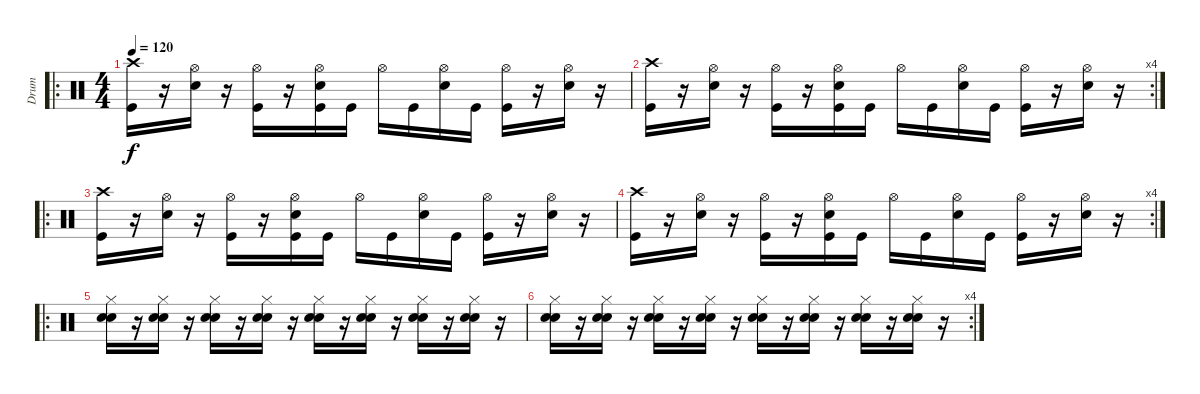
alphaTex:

\track ("Drum" "Drum") {instrument percussion}
\staff {score}
\articulation defaults
\ro
\ts (4 4)
\tempo 120
\clef neutral
\ks c
("Crash high (hit)" "Kick (hit)").16{dy f} r.16 ("Hi-Hat (open)" "Snare (hit) 2").16 r.16 ("Hi-Hat (open)" "Kick (hit)").16 r.16 ("Hi-Hat (open)" "Snare (hit) 2" "Kick (hit)").16 "Kick (hit)".16 "Hi-Hat (open)".16 "Kick (hit)".16 ("Hi-Hat (open)" "Snare (hit) 2").16 "Kick (hit)".16 ("Hi-Hat (open)" "Kick (hit)").16 r.16 ("Hi-Hat (open)" "Snare (hit) 2").16 r.16 |
\rc 4
("Crash high (hit)" "Kick (hit)").16 r.16 ("Hi-Hat (open)" "Snare (hit) 2").16 r.16 ("Hi-Hat (open)" "Kick (hit)").16 r.16 ("Hi-Hat (open)" "Snare (hit) 2" "Kick (hit)").16 "Kick (hit)".16 "Hi-Hat (open)".16 "Kick (hit)".16 ("Hi-Hat (open)" "Snare (hit) 2").16 "Kick (hit)".16 ("Hi-Hat (open)" "Kick (hit)").16 r.16 ("Hi-Hat (open)" "Snare (hit) 2").16 r.16 |
\ro
("Crash high (hit)" "Kick (hit)").16 r.16 ("Hi-Hat (open)" "Snare (hit) 2").16 r.16 ("Hi-Hat (open)" "Kick (hit)").16 r.16 ("Hi-Hat (open)" "Snare (hit) 2" "Kick (hit)").16 "Kick (hit)".16 "Hi-Hat (open)".16 "Kick (hit)".16 ("Hi-Hat (open)" "Snare (hit) 2").16 "Kick (hit)".16 ("Hi-Hat (open)" "Kick (hit)").16 r.16 ("Hi-Hat (open)" "Snare (hit) 2").16 r.16 |
\rc 4
("Crash high (hit)" "Kick (hit)").16 r.16 ("Hi-Hat (open)" "Snare (hit) 2").16 r.16 ("Hi-Hat (open)" "Kick (hit)").16 r.16 ("Hi-Hat (open)" "Snare (hit) 2" "Kick (hit)").16 "Kick (hit)".16 "Hi-Hat (open)".16 "Kick (hit)".16 ("Hi-Hat (open)" "Snare (hit) 2").16 "Kick (hit)".16 ("Hi-Hat (open)" "Kick (hit)").16 r.16 ("Hi-Hat (open)" "Snare (hit) 2").16 r.16 |
\ro
("Hi-Hat (closed)" "Snare (hit) 2" "Snare (hit) 2").16 r.16 ("Hi-Hat (closed)" "Snare (hit) 2" "Snare (hit) 2").16 r.16 ("Hi-Hat (closed)" "Snare (hit) 2" "Snare (hit) 2").16 r.16 ("Hi-Hat (closed)" "Snare (hit) 2" "Snare (hit) 2").16 r.16 ("Hi-Hat (closed)" "Snare (hit) 2" "Snare (hit) 2").16 r.16 ("Hi-Hat (closed)" "Snare (hit) 2" "Snare (hit) 2").16 r.16 ("Hi-Hat (closed)" "Snare (hit) 2" "Snare (hit) 2").16 r.16 ("Hi-Hat (closed)" "Snare (hit) 2" "Snare (hit) 2").16 r.16 |
\rc 4
("Hi-Hat (closed)" "Snare (hit) 2" "Snare (hit) 2").16 r.16 ("Hi-Hat (closed)" "Snare (hit) 2" "Snare (hit) 2").16 r.16 ("Hi-Hat (closed)" "Snare (hit) 2" "Snare (hit) 2").16 r.16 ("Hi-Hat (closed)" "Snare (hit) 2" "Snare (hit) 2").16 r.16 ("Hi-Hat (closed)" "Snare (hit) 2" "Snare (hit) 2").16 r.16 ("Hi-Hat (closed)" "Snare (hit) 2" "Snare (hit) 2").16 r.16 ("Hi-Hat (closed)" "Snare (hit) 2" "Snare (hit) 2").16 r.16 ("Hi-Hat (closed)" "Snare (hit) 2" "Snare (hit) 2").16 r.16
